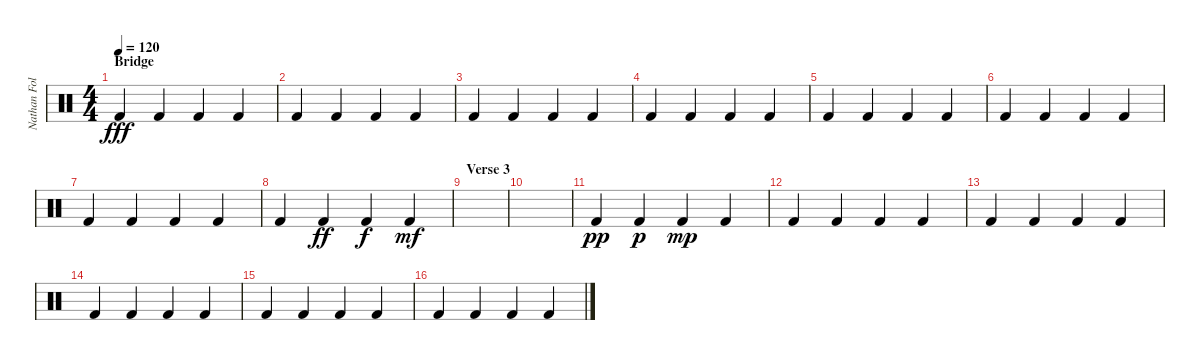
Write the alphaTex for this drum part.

\track ("Nathan Followill - Drums" "Nathan Fol") {instrument percussion}
\staff {score}
\articulation defaults
\ts (4 4)
\section ("" "Bridge")
\tempo 120
\clef neutral
\ks c "Kick (hit) 2".4{dy fff} "Kick (hit) 2".4 "Kick (hit) 2".4 "Kick (hit) 2".4
|
"Kick (hit) 2".4 "Kick (hit) 2".4 "Kick (hit) 2".4 "Kick (hit) 2".4 |
"Kick (hit) 2".4 "Kick (hit) 2".4 "Kick (hit) 2".4 "Kick (hit) 2".4 |
"Kick (hit) 2".4 "Kick (hit) 2".4 "Kick (hit) 2".4 "Kick (hit) 2".4 |
"Kick (hit) 2".4 "Kick (hit) 2".4 "Kick (hit) 2".4 "Kick (hit) 2".4 |
"Kick (hit) 2".4 "Kick (hit) 2".4 "Kick (hit) 2".4 "Kick (hit) 2".4 |
"Kick (hit) 2".4 "Kick (hit) 2".4 "Kick (hit) 2".4 "Kick (hit) 2".4 |
"Kick (hit) 2".4 "Kick (hit) 2".4{dy ff} "Kick (hit) 2".4{dy f} "Kick (hit) 2".4{dy mf} |
\section ("" "Verse 3")
|
|
"Kick (hit) 2".4{dy pp} "Kick (hit) 2".4{dy p} "Kick (hit) 2".4{dy mp} "Kick (hit) 2".4 |
"Kick (hit) 2".4 "Kick (hit) 2".4 "Kick (hit) 2".4 "Kick (hit) 2".4 |
"Kick (hit) 2".4 "Kick (hit) 2".4 "Kick (hit) 2".4 "Kick (hit) 2".4 |
"Kick (hit) 2".4 "Kick (hit) 2".4 "Kick (hit) 2".4 "Kick (hit) 2".4 |
"Kick (hit) 2".4 "Kick (hit) 2".4 "Kick (hit) 2".4 "Kick (hit) 2".4 |
"Kick (hit) 2".4 "Kick (hit) 2".4 "Kick (hit) 2".4 "Kick (hit) 2".4
